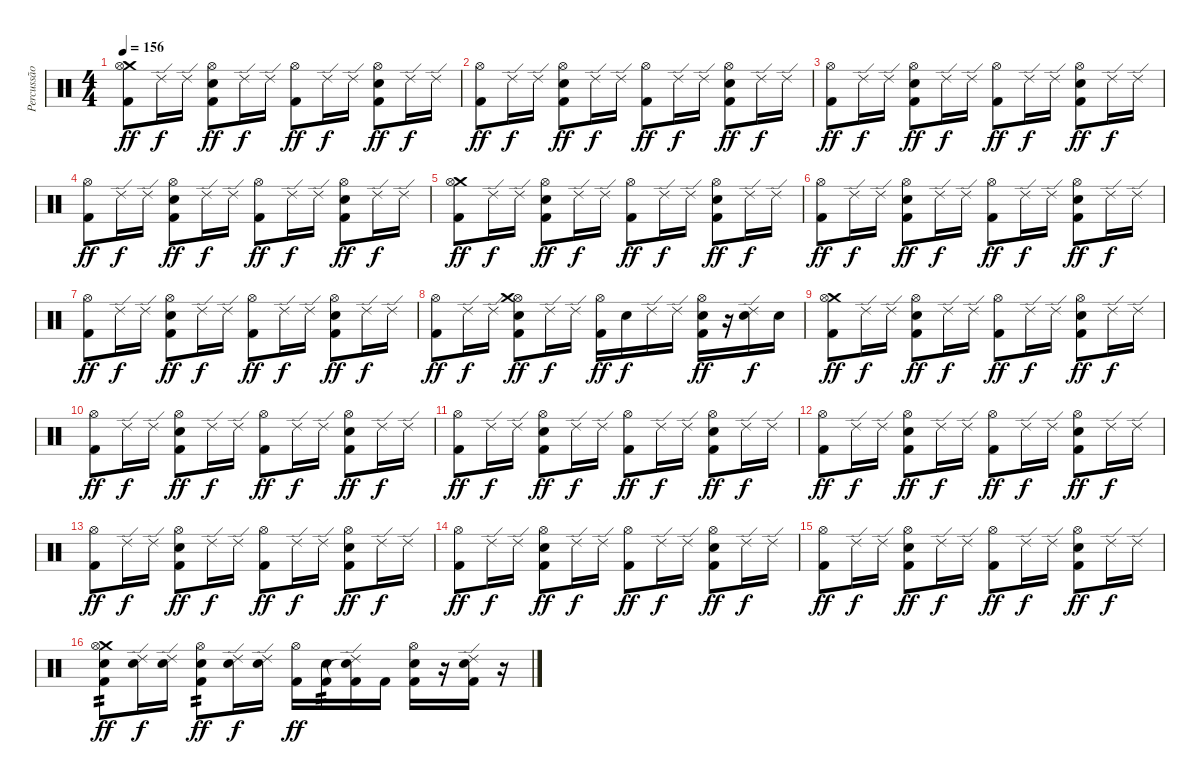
\track ("Percussão" "Percussão") {instrument percussion}
\staff {score}
\articulation defaults
\ts (4 4)
\tempo 156
\clef neutral
\ks c
("Crash medium (hit)" "Hi-Hat (open)" "Kick (hit) 2").8{dy ff} "Ride (edge) 2".16{dy f} "Ride (edge) 2".16 ("Hi-Hat (open)" "Snare (hit) 2" "Kick (hit) 2").8{dy ff} "Ride (edge) 2".16{dy f} "Ride (edge) 2".16 ("Hi-Hat (open)" "Kick (hit) 2").8{dy ff} "Ride (edge) 2".16{dy f} "Ride (edge) 2".16 ("Hi-Hat (open)" "Snare (hit) 2" "Kick (hit) 2").8{dy ff} "Ride (edge) 2".16{dy f} "Ride (edge) 2".16 |
("Hi-Hat (open)" "Kick (hit) 2").8{dy ff} "Ride (edge) 2".16{dy f} "Ride (edge) 2".16 ("Hi-Hat (open)" "Snare (hit) 2" "Kick (hit) 2").8{dy ff} "Ride (edge) 2".16{dy f} "Ride (edge) 2".16 ("Hi-Hat (open)" "Kick (hit) 2").8{dy ff} "Ride (edge) 2".16{dy f} "Ride (edge) 2".16 ("Hi-Hat (open)" "Snare (hit) 2" "Kick (hit) 2").8{dy ff} "Ride (edge) 2".16{dy f} "Ride (edge) 2".16 |
("Hi-Hat (open)" "Kick (hit) 2").8{dy ff} "Ride (edge) 2".16{dy f} "Ride (edge) 2".16 ("Hi-Hat (open)" "Snare (hit) 2" "Kick (hit) 2").8{dy ff} "Ride (edge) 2".16{dy f} "Ride (edge) 2".16 ("Hi-Hat (open)" "Kick (hit) 2").8{dy ff} "Ride (edge) 2".16{dy f} "Ride (edge) 2".16 ("Hi-Hat (open)" "Snare (hit) 2" "Kick (hit) 2").8{dy ff} "Ride (edge) 2".16{dy f} "Ride (edge) 2".16 |
("Hi-Hat (open)" "Kick (hit) 2").8{dy ff} "Ride (edge) 2".16{dy f} "Ride (edge) 2".16 ("Hi-Hat (open)" "Snare (hit) 2" "Kick (hit) 2").8{dy ff} "Ride (edge) 2".16{dy f} "Ride (edge) 2".16 ("Hi-Hat (open)" "Kick (hit) 2").8{dy ff} "Ride (edge) 2".16{dy f} "Ride (edge) 2".16 ("Hi-Hat (open)" "Snare (hit) 2" "Kick (hit) 2").8{dy ff} "Ride (edge) 2".16{dy f} "Ride (edge) 2".16 |
("Crash medium (hit)" "Hi-Hat (open)" "Kick (hit) 2").8{dy ff} "Ride (edge) 2".16{dy f} "Ride (edge) 2".16 ("Hi-Hat (open)" "Snare (hit) 2" "Kick (hit) 2").8{dy ff} "Ride (edge) 2".16{dy f} "Ride (edge) 2".16 ("Hi-Hat (open)" "Kick (hit) 2").8{dy ff} "Ride (edge) 2".16{dy f} "Ride (edge) 2".16 ("Hi-Hat (open)" "Snare (hit) 2" "Kick (hit) 2").8{dy ff} "Ride (edge) 2".16{dy f} "Ride (edge) 2".16 |
("Hi-Hat (open)" "Kick (hit) 2").8{dy ff} "Ride (edge) 2".16{dy f} "Ride (edge) 2".16 ("Hi-Hat (open)" "Snare (hit) 2" "Kick (hit) 2").8{dy ff} "Ride (edge) 2".16{dy f} "Ride (edge) 2".16 ("Hi-Hat (open)" "Kick (hit) 2").8{dy ff} "Ride (edge) 2".16{dy f} "Ride (edge) 2".16 ("Hi-Hat (open)" "Snare (hit) 2" "Kick (hit) 2").8{dy ff} "Ride (edge) 2".16{dy f} "Ride (edge) 2".16 |
("Hi-Hat (open)" "Kick (hit) 2").8{dy ff} "Ride (edge) 2".16{dy f} "Ride (edge) 2".16 ("Hi-Hat (open)" "Snare (hit) 2" "Kick (hit) 2").8{dy ff} "Ride (edge) 2".16{dy f} "Ride (edge) 2".16 ("Hi-Hat (open)" "Kick (hit) 2").8{dy ff} "Ride (edge) 2".16{dy f} "Ride (edge) 2".16 ("Hi-Hat (open)" "Snare (hit) 2" "Kick (hit) 2").8{dy ff} "Ride (edge) 2".16{dy f} "Ride (edge) 2".16 |
("Hi-Hat (open)" "Kick (hit) 2").8{dy ff} "Ride (edge) 2".16{dy f} "Ride (edge) 2".16 ("Hi-Hat (open)" "Crash medium (hit)" "Snare (hit) 2" "Kick (hit) 2").8{dy ff} "Ride (edge) 2".16{dy f} "Ride (edge) 2".16 ("Hi-Hat (open)" "Kick (hit) 2").16{dy ff} "Snare (hit) 2".16{dy f} "Ride (edge) 2".16 "Ride (edge) 2".16 ("Hi-Hat (open)" "Snare (hit) 2" "Kick (hit) 2").16{dy ff} r.16 ("Ride (edge) 2" "Snare (hit) 2").16{dy f} "Snare (hit) 2".16 |
("Crash medium (hit)" "Hi-Hat (open)" "Kick (hit) 2").8{dy ff} "Ride (edge) 2".16{dy f} "Ride (edge) 2".16 ("Hi-Hat (open)" "Snare (hit) 2" "Kick (hit) 2").8{dy ff} "Ride (edge) 2".16{dy f} "Ride (edge) 2".16 ("Hi-Hat (open)" "Kick (hit) 2").8{dy ff} "Ride (edge) 2".16{dy f} "Ride (edge) 2".16 ("Hi-Hat (open)" "Snare (hit) 2" "Kick (hit) 2").8{dy ff} "Ride (edge) 2".16{dy f} "Ride (edge) 2".16 |
("Hi-Hat (open)" "Kick (hit) 2").8{dy ff} "Ride (edge) 2".16{dy f} "Ride (edge) 2".16 ("Hi-Hat (open)" "Snare (hit) 2" "Kick (hit) 2").8{dy ff} "Ride (edge) 2".16{dy f} "Ride (edge) 2".16 ("Hi-Hat (open)" "Kick (hit) 2").8{dy ff} "Ride (edge) 2".16{dy f} "Ride (edge) 2".16 ("Hi-Hat (open)" "Snare (hit) 2" "Kick (hit) 2").8{dy ff} "Ride (edge) 2".16{dy f} "Ride (edge) 2".16 |
("Hi-Hat (open)" "Kick (hit) 2").8{dy ff} "Ride (edge) 2".16{dy f} "Ride (edge) 2".16 ("Hi-Hat (open)" "Snare (hit) 2" "Kick (hit) 2").8{dy ff} "Ride (edge) 2".16{dy f} "Ride (edge) 2".16 ("Hi-Hat (open)" "Kick (hit) 2").8{dy ff} "Ride (edge) 2".16{dy f} "Ride (edge) 2".16 ("Hi-Hat (open)" "Snare (hit) 2" "Kick (hit) 2").8{dy ff} "Ride (edge) 2".16{dy f} "Ride (edge) 2".16 |
("Hi-Hat (open)" "Kick (hit) 2").8{dy ff} "Ride (edge) 2".16{dy f} "Ride (edge) 2".16 ("Hi-Hat (open)" "Snare (hit) 2" "Kick (hit) 2").8{dy ff} "Ride (edge) 2".16{dy f} "Ride (edge) 2".16 ("Hi-Hat (open)" "Kick (hit) 2").8{dy ff} "Ride (edge) 2".16{dy f} "Ride (edge) 2".16 ("Hi-Hat (open)" "Snare (hit) 2" "Kick (hit) 2").8{dy ff} "Ride (edge) 2".16{dy f} "Ride (edge) 2".16 |
("Hi-Hat (open)" "Kick (hit) 2").8{dy ff} "Ride (edge) 2".16{dy f} "Ride (edge) 2".16 ("Hi-Hat (open)" "Snare (hit) 2" "Kick (hit) 2").8{dy ff} "Ride (edge) 2".16{dy f} "Ride (edge) 2".16 ("Hi-Hat (open)" "Kick (hit) 2").8{dy ff} "Ride (edge) 2".16{dy f} "Ride (edge) 2".16 ("Hi-Hat (open)" "Snare (hit) 2" "Kick (hit) 2").8{dy ff} "Ride (edge) 2".16{dy f} "Ride (edge) 2".16 |
("Hi-Hat (open)" "Kick (hit) 2").8{dy ff} "Ride (edge) 2".16{dy f} "Ride (edge) 2".16 ("Hi-Hat (open)" "Snare (hit) 2" "Kick (hit) 2").8{dy ff} "Ride (edge) 2".16{dy f} "Ride (edge) 2".16 ("Hi-Hat (open)" "Kick (hit) 2").8{dy ff} "Ride (edge) 2".16{dy f} "Ride (edge) 2".16 ("Hi-Hat (open)" "Snare (hit) 2" "Kick (hit) 2").8{dy ff} "Ride (edge) 2".16{dy f} "Ride (edge) 2".16 |
("Hi-Hat (open)" "Kick (hit) 2").8{dy ff} "Ride (edge) 2".16{dy f} "Ride (edge) 2".16 ("Hi-Hat (open)" "Snare (hit) 2" "Kick (hit) 2").8{dy ff} "Ride (edge) 2".16{dy f} "Ride (edge) 2".16 ("Hi-Hat (open)" "Kick (hit) 2").8{dy ff} "Ride (edge) 2".16{dy f} "Ride (edge) 2".16 ("Hi-Hat (open)" "Snare (hit) 2" "Kick (hit) 2").8{dy ff} "Ride (edge) 2".16{dy f} "Ride (edge) 2".16 |
("Crash medium (hit)" "Hi-Hat (open)" "Snare (hit) 2" "Kick (hit) 2").8{tp 2 dy ff} ("Ride (edge) 2" "Snare (hit) 2").16{dy f} ("Ride (edge) 2" "Snare (hit) 2").16 ("Hi-Hat (open)" "Snare (hit) 2" "Kick (hit) 2").8{tp 2 dy ff} ("Ride (edge) 2" "Snare (hit) 2").16{dy f} ("Ride (edge) 2" "Snare (hit) 2").16 ("Hi-Hat (open)" "Kick (hit) 2").16{dy ff} ("Snare (hit) 2" "Kick (hit) 2").16{tp 2} ("Ride (edge) 2" "Snare (hit)"{t} "Kick (hit) 2").16 "Kick (hit) 2".16 ("Hi-Hat (open)" "Snare (hit) 2" "Kick (hit) 2").16 r.16 ("Ride (edge) 2" "Snare (hit) 2" "Kick (hit) 2").16 r.16
